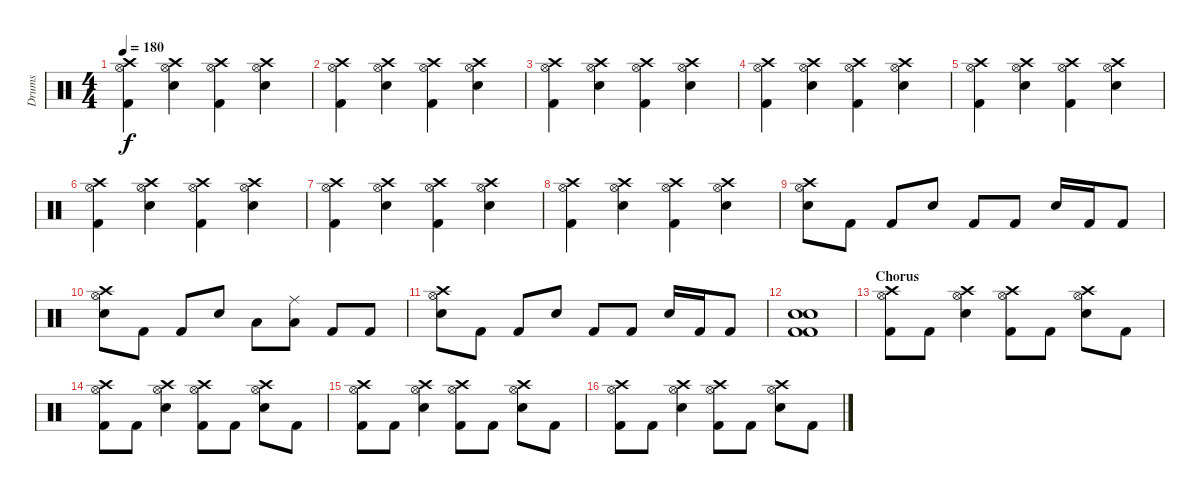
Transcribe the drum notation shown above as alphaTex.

\track ("Drums" "Drums") {instrument percussion}
\staff {score}
\articulation defaults
\ts (4 4)
\tempo 180
\clef neutral
\ks c
("Hi-Hat (open)" "Crash high (hit)" "Kick (hit) 2").4{dy f} ("Hi-Hat (open)" "Crash high (hit)" "Snare (hit) 2").4 ("Hi-Hat (open)" "Crash high (hit)" "Kick (hit) 2").4 ("Hi-Hat (open)" "Crash high (hit)" "Snare (hit) 2").4 |
("Hi-Hat (open)" "Crash high (hit)" "Kick (hit) 2").4 ("Hi-Hat (open)" "Crash high (hit)" "Snare (hit) 2").4 ("Hi-Hat (open)" "Crash high (hit)" "Kick (hit) 2").4 ("Hi-Hat (open)" "Crash high (hit)" "Snare (hit) 2").4 |
("Hi-Hat (open)" "Crash high (hit)" "Kick (hit) 2").4 ("Hi-Hat (open)" "Crash high (hit)" "Snare (hit) 2").4 ("Hi-Hat (open)" "Crash high (hit)" "Kick (hit) 2").4 ("Hi-Hat (open)" "Crash high (hit)" "Snare (hit) 2").4 |
("Hi-Hat (open)" "Crash high (hit)" "Kick (hit) 2").4 ("Hi-Hat (open)" "Crash high (hit)" "Snare (hit) 2").4 ("Hi-Hat (open)" "Crash high (hit)" "Kick (hit) 2").4 ("Hi-Hat (open)" "Crash high (hit)" "Snare (hit) 2").4 |
("Hi-Hat (open)" "Crash high (hit)" "Kick (hit) 2").4 ("Hi-Hat (open)" "Crash high (hit)" "Snare (hit) 2").4 ("Hi-Hat (open)" "Crash high (hit)" "Kick (hit) 2").4 ("Hi-Hat (open)" "Crash high (hit)" "Snare (hit) 2").4 |
("Hi-Hat (open)" "Crash high (hit)" "Kick (hit) 2").4 ("Hi-Hat (open)" "Crash high (hit)" "Snare (hit) 2").4 ("Hi-Hat (open)" "Crash high (hit)" "Kick (hit) 2").4 ("Hi-Hat (open)" "Crash high (hit)" "Snare (hit) 2").4 |
("Hi-Hat (open)" "Crash high (hit)" "Kick (hit) 2").4 ("Hi-Hat (open)" "Crash high (hit)" "Snare (hit) 2").4 ("Hi-Hat (open)" "Crash high (hit)" "Kick (hit) 2").4 ("Hi-Hat (open)" "Crash high (hit)" "Snare (hit) 2").4 |
("Hi-Hat (open)" "Crash high (hit)" "Kick (hit) 2").4 ("Hi-Hat (open)" "Crash high (hit)" "Snare (hit) 2").4 ("Hi-Hat (open)" "Crash high (hit)" "Kick (hit) 2").4 ("Hi-Hat (open)" "Crash high (hit)" "Snare (hit) 2").4 |
("Hi-Hat (open)" "Crash high (hit)" "Snare (hit) 2").8 "Kick (hit) 2".8 "Kick (hit) 2".8 "Snare (hit) 2".8 "Kick (hit) 2".8 "Kick (hit) 2".8 "Snare (hit) 2".16 "Kick (hit) 2".16 "Kick (hit) 2".8 |
("Hi-Hat (open)" "Crash high (hit)" "Snare (hit) 2").8 "Kick (hit) 2".8 "Kick (hit) 2".8 "Snare (hit) 2".8 "Low Tom (hit)".8 ("Ride (middle)" "Low Floor Tom (hit)").8 "Kick (hit) 2".8 "Kick (hit) 2".8 |
("Hi-Hat (open)" "Crash high (hit)" "Snare (hit) 2").8 "Kick (hit) 2".8 "Kick (hit) 2".8 "Snare (hit) 2".8 "Kick (hit) 2".8 "Kick (hit) 2".8 "Snare (hit) 2".16 "Kick (hit) 2".16 "Kick (hit) 2".8 |
("Kick (hit) 2" "Kick (hit) 2" "Snare (hit) 2" "Snare (hit) 2").1 |
\section ("" "Chorus")
("Kick (hit) 2" "Hi-Hat (open)" "Crash high (hit)").8 "Kick (hit) 2".8 ("Snare (hit) 2" "Hi-Hat (open)" "Crash high (hit)").4 ("Hi-Hat (open)" "Crash high (hit)" "Kick (hit) 2").8 "Kick (hit) 2".8 ("Hi-Hat (open)" "Crash high (hit)" "Snare (hit) 2").8 "Kick (hit) 2".8 |
("Kick (hit) 2" "Hi-Hat (open)" "Crash high (hit)").8 "Kick (hit) 2".8 ("Snare (hit) 2" "Hi-Hat (open)" "Crash high (hit)").4 ("Hi-Hat (open)" "Crash high (hit)" "Kick (hit) 2").8 "Kick (hit) 2".8 ("Hi-Hat (open)" "Crash high (hit)" "Snare (hit) 2").8 "Kick (hit) 2".8 |
("Kick (hit) 2" "Hi-Hat (open)" "Crash high (hit)").8 "Kick (hit) 2".8 ("Snare (hit) 2" "Hi-Hat (open)" "Crash high (hit)").4 ("Hi-Hat (open)" "Crash high (hit)" "Kick (hit) 2").8 "Kick (hit) 2".8 ("Hi-Hat (open)" "Crash high (hit)" "Snare (hit) 2").8 "Kick (hit) 2".8 |
("Kick (hit) 2" "Hi-Hat (open)" "Crash high (hit)").8 "Kick (hit) 2".8 ("Snare (hit) 2" "Hi-Hat (open)" "Crash high (hit)").4 ("Hi-Hat (open)" "Crash high (hit)" "Kick (hit) 2").8 "Kick (hit) 2".8 ("Hi-Hat (open)" "Crash high (hit)" "Snare (hit) 2").8 "Kick (hit) 2".8
